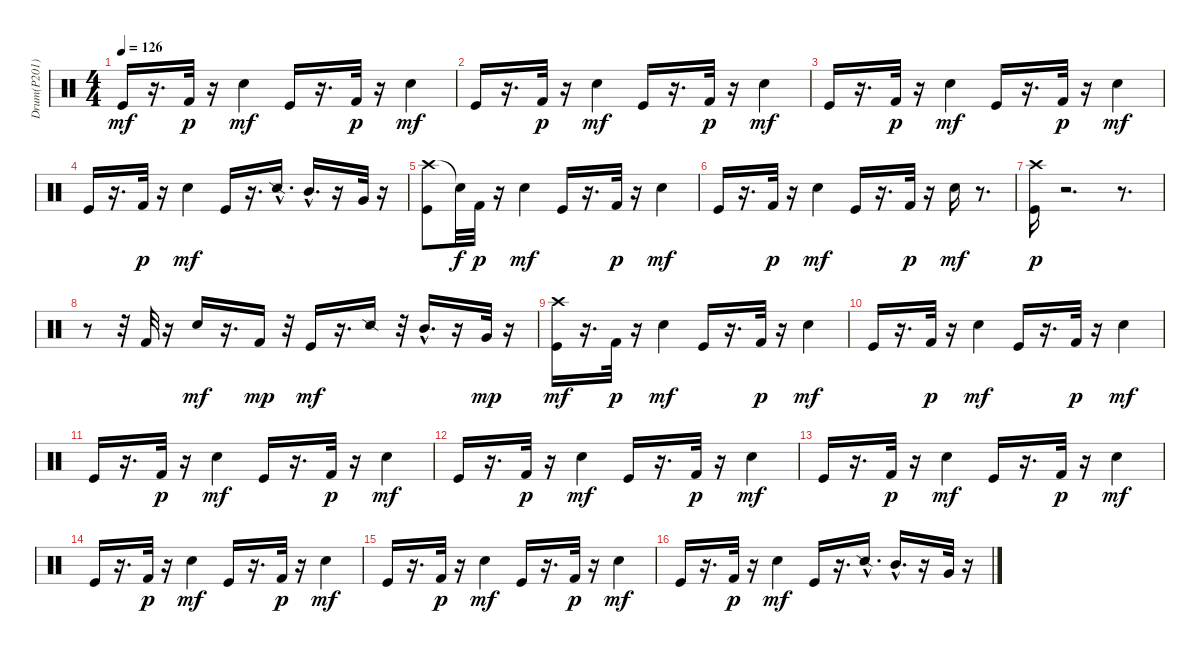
\track ("Drum(P201)" "Drum(P201)") {instrument percussion}
\staff {score}
\articulation defaults
\ts (4 4)
\tempo 126
\clef neutral
\ks c "Kick (hit)".16{dy mf}
r.16{d} "Kick (hit) 2".32{dy p} r.16 "Snare (hit) 2".4{dy mf} "Kick (hit)".16 r.16{d} "Kick (hit) 2".32{dy p} r.16 "Snare (hit) 2".4{dy mf} |
"Kick (hit)".16 r.16{d} "Kick (hit) 2".32{dy p} r.16 "Snare (hit) 2".4{dy mf} "Kick (hit)".16 r.16{d} "Kick (hit) 2".32{dy p} r.16 "Snare (hit) 2".4{dy mf} |
"Kick (hit)".16 r.16{d} "Kick (hit) 2".32{dy p} r.16 "Snare (hit) 2".4{dy mf} "Kick (hit)".16 r.16{d} "Kick (hit) 2".32{dy p} r.16 "Snare (hit) 2".4{dy mf} |
"Kick (hit)".16 r.16{d} "Kick (hit) 2".32{dy p} r.16 "Snare (hit) 2".4{dy mf} "Kick (hit)".16 r.16{d} "Snare (side stick) 2"{hac}.16{d} "Mid Tom (hit)"{hac}.16{d} r.16 "Very Low Tom (hit)".32 r.16 |
("Crash high (hit)" "Kick (hit)").8 "Snare (hit)"{t}.32{dy f} "Kick (hit) 2".32{dy p} r.16 "Snare (hit) 2".4{dy mf} "Kick (hit)".16 r.16{d} "Kick (hit) 2".32{dy p} r.16 "Snare (hit) 2".4{dy mf} |
"Kick (hit)".16 r.16{d} "Kick (hit) 2".32{dy p} r.16 "Snare (hit) 2".4{dy mf} "Kick (hit)".16 r.16{d} "Kick (hit) 2".32{dy p} r.16 "Snare (hit) 2".16{dy mf} r.8{d} |
("Kick (hit)" "Crash high (hit)").16{dy p} r.2{d} r.8{d} |
r.8 r.32 "Kick (hit) 2".32 r.16 "Snare (hit) 2".16{dy mf} r.16{d} "Kick (hit) 2".16{dy mp} r.32 "Kick (hit)".16{dy mf} r.16{d} "Snare (side stick) 2".16 r.32 "Mid Tom (hit)"{hac}.16{d} r.16 "Very Low Tom (hit)".32{dy mp} r.16 |
("Crash high (hit)" "Kick (hit)").16{dy mf} r.16{d} "Kick (hit) 2".32{dy p} r.16 "Snare (hit) 2".4{dy mf} "Kick (hit)".16 r.16{d} "Kick (hit) 2".32{dy p} r.16 "Snare (hit) 2".4{dy mf} |
"Kick (hit)".16 r.16{d} "Kick (hit) 2".32{dy p} r.16 "Snare (hit) 2".4{dy mf} "Kick (hit)".16 r.16{d} "Kick (hit) 2".32{dy p} r.16 "Snare (hit) 2".4{dy mf} |
"Kick (hit)".16 r.16{d} "Kick (hit) 2".32{dy p} r.16 "Snare (hit) 2".4{dy mf} "Kick (hit)".16 r.16{d} "Kick (hit) 2".32{dy p} r.16 "Snare (hit) 2".4{dy mf} |
"Kick (hit)".16 r.16{d} "Kick (hit) 2".32{dy p} r.16 "Snare (hit) 2".4{dy mf} "Kick (hit)".16 r.16{d} "Kick (hit) 2".32{dy p} r.16 "Snare (hit) 2".4{dy mf} |
"Kick (hit)".16 r.16{d} "Kick (hit) 2".32{dy p} r.16 "Snare (hit) 2".4{dy mf} "Kick (hit)".16 r.16{d} "Kick (hit) 2".32{dy p} r.16 "Snare (hit) 2".4{dy mf} |
"Kick (hit)".16 r.16{d} "Kick (hit) 2".32{dy p} r.16 "Snare (hit) 2".4{dy mf} "Kick (hit)".16 r.16{d} "Kick (hit) 2".32{dy p} r.16 "Snare (hit) 2".4{dy mf} |
"Kick (hit)".16 r.16{d} "Kick (hit) 2".32{dy p} r.16 "Snare (hit) 2".4{dy mf} "Kick (hit)".16 r.16{d} "Kick (hit) 2".32{dy p} r.16 "Snare (hit) 2".4{dy mf} |
"Kick (hit)".16 r.16{d} "Kick (hit) 2".32{dy p} r.16 "Snare (hit) 2".4{dy mf} "Kick (hit)".16 r.16{d} "Snare (side stick) 2"{hac}.16{d} "Mid Tom (hit)"{hac}.16{d} r.16 "Very Low Tom (hit)".32 r.16
